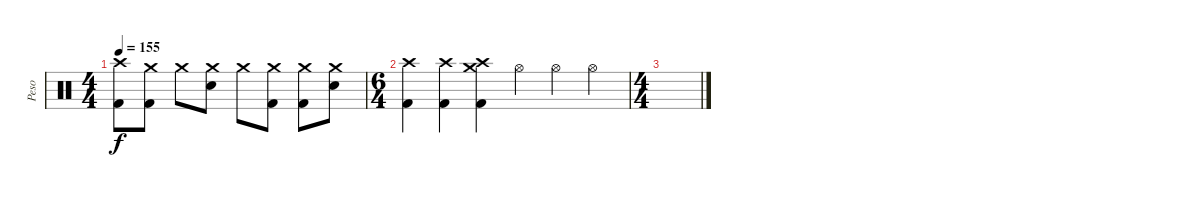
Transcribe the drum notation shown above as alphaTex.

\track ("Peso" "Peso") {instrument percussion}
\staff {score}
\articulation defaults
\ts (4 4)
\tempo 155
\clef neutral
\ks c
("Crash high (hit)" "Kick (hit) 2").8{dy f} ("Crash medium (hit)" "Kick (hit) 2").8 "Crash medium (hit)".8 ("Crash medium (hit)" "Snare (hit) 2").8 "Crash medium (hit)".8 ("Crash medium (hit)" "Kick (hit) 2").8 ("Crash medium (hit)" "Kick (hit) 2").8 ("Crash medium (hit)" "Snare (hit) 2").8 |
\ts (6 4)
("Crash high (hit)" "Kick (hit) 2").4 ("Crash high (hit)" "Kick (hit) 2").4 ("Crash high (hit)" "Crash medium (hit)" "Kick (hit) 2").4 "Hi-Hat (open)"{x}.4 "Hi-Hat (open)"{x}.4 "Hi-Hat (open)"{x}.4 |
\ts (4 4)
